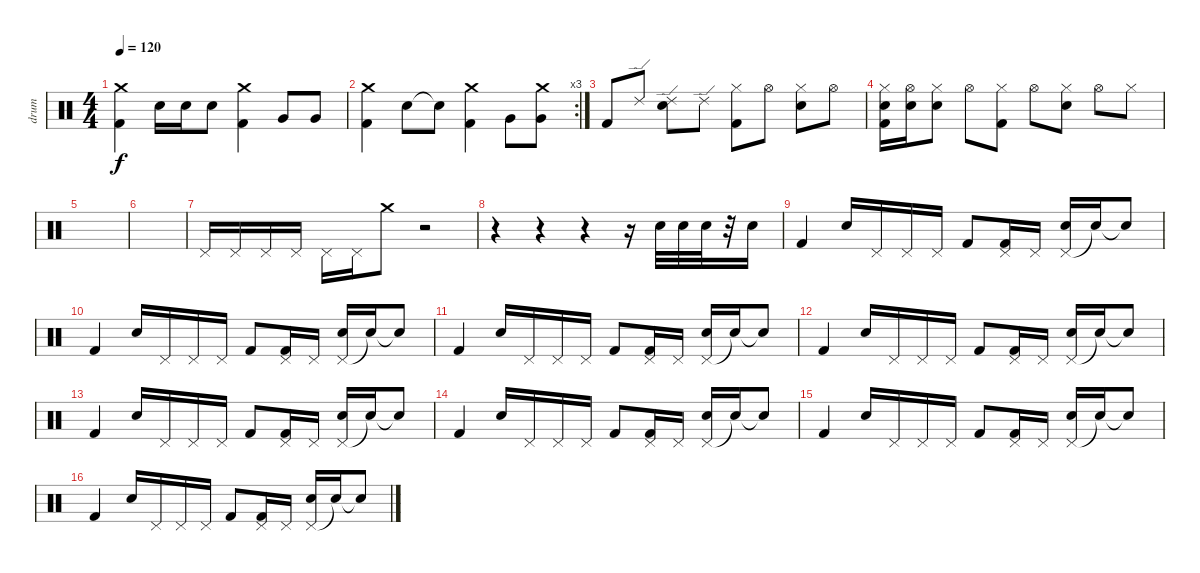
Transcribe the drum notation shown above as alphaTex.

\track ("drum" "drum") {instrument percussion}
\staff {score}
\articulation defaults
\ts (4 4)
\tempo 120
\clef neutral
\ks c
("Crash medium (hit)" "Kick (hit) 2").4{dy f} "Electric Snare (hit)".16 "Electric Snare (hit)".16 "Electric Snare (hit)".8 ("Crash medium (hit)" "Kick (hit) 2").4 "Very Low Tom (hit)".8 "Very Low Tom (hit)".8 |
\rc 3
("Crash medium (hit)" "Kick (hit) 2").4 "Electric Snare (hit)".8 "Electric Snare (hit)"{t}.8 ("Crash medium (hit)" "Kick (hit) 2").4 "Very Low Tom (hit)".8 ("Crash medium (hit)" "Very Low Tom (hit)").8 |
"Kick (hit) 2".8 "Ride (edge) 2".8 ("Ride (edge) 2" "Electric Snare (hit)").8 "Ride (edge) 2".8 ("Hi-Hat (closed)" "Kick (hit) 2").8 "Hi-Hat (open)".8 ("Hi-Hat (closed)" "Electric Snare (hit)").8 "Hi-Hat (open)".8 |
("Hi-Hat (closed)" "Electric Snare (hit)" "Kick (hit) 2").16 ("Hi-Hat (open)" "Electric Snare (hit)").16 ("Hi-Hat (closed)" "Electric Snare (hit)").8 "Hi-Hat (open)".8 ("Hi-Hat (closed)" "Kick (hit) 2").8 "Hi-Hat (open)".8 ("Hi-Hat (closed)" "Electric Snare (hit)").8 "Hi-Hat (open)".8 "Hi-Hat (closed)".8 |
|
|
"Pedal Hi-Hat (hit)".16 "Pedal Hi-Hat (hit)".16 "Pedal Hi-Hat (hit)".16 "Pedal Hi-Hat (hit)".16 "Pedal Hi-Hat (hit)".16 "Pedal Hi-Hat (hit)".16 "Crash medium (hit)".8 r.2 |
r.4 r.4 r.4 r.16 "Electric Snare (hit)".32 "Electric Snare (hit)".32 "Electric Snare (hit)".32 r.32 "Electric Snare (hit)".16 |
"Kick (hit) 2".4 "Electric Snare (hit)".16 "Pedal Hi-Hat (hit)".16 "Pedal Hi-Hat (hit)".16 "Pedal Hi-Hat (hit)".16 "Kick (hit) 2".8 ("Pedal Hi-Hat (hit)" "Kick (hit) 2").16 "Pedal Hi-Hat (hit)".16 ("Pedal Hi-Hat (hit)" "Electric Snare (hit)").16 "Snare (hit)"{t}.16 "Snare (hit)"{t}.8 |
"Kick (hit) 2".4 "Electric Snare (hit)".16 "Pedal Hi-Hat (hit)".16 "Pedal Hi-Hat (hit)".16 "Pedal Hi-Hat (hit)".16 "Kick (hit) 2".8 ("Pedal Hi-Hat (hit)" "Kick (hit) 2").16 "Pedal Hi-Hat (hit)".16 ("Pedal Hi-Hat (hit)" "Electric Snare (hit)").16 "Snare (hit)"{t}.16 "Snare (hit)"{t}.8 |
"Kick (hit) 2".4 "Electric Snare (hit)".16 "Pedal Hi-Hat (hit)".16 "Pedal Hi-Hat (hit)".16 "Pedal Hi-Hat (hit)".16 "Kick (hit) 2".8 ("Pedal Hi-Hat (hit)" "Kick (hit) 2").16 "Pedal Hi-Hat (hit)".16 ("Pedal Hi-Hat (hit)" "Electric Snare (hit)").16 "Snare (hit)"{t}.16 "Snare (hit)"{t}.8 |
"Kick (hit) 2".4 "Electric Snare (hit)".16 "Pedal Hi-Hat (hit)".16 "Pedal Hi-Hat (hit)".16 "Pedal Hi-Hat (hit)".16 "Kick (hit) 2".8 ("Pedal Hi-Hat (hit)" "Kick (hit) 2").16 "Pedal Hi-Hat (hit)".16 ("Pedal Hi-Hat (hit)" "Electric Snare (hit)").16 "Snare (hit)"{t}.16 "Snare (hit)"{t}.8 |
"Kick (hit) 2".4 "Electric Snare (hit)".16 "Pedal Hi-Hat (hit)".16 "Pedal Hi-Hat (hit)".16 "Pedal Hi-Hat (hit)".16 "Kick (hit) 2".8 ("Pedal Hi-Hat (hit)" "Kick (hit) 2").16 "Pedal Hi-Hat (hit)".16 ("Pedal Hi-Hat (hit)" "Electric Snare (hit)").16 "Snare (hit)"{t}.16 "Snare (hit)"{t}.8 |
"Kick (hit) 2".4 "Electric Snare (hit)".16 "Pedal Hi-Hat (hit)".16 "Pedal Hi-Hat (hit)".16 "Pedal Hi-Hat (hit)".16 "Kick (hit) 2".8 ("Pedal Hi-Hat (hit)" "Kick (hit) 2").16 "Pedal Hi-Hat (hit)".16 ("Pedal Hi-Hat (hit)" "Electric Snare (hit)").16 "Snare (hit)"{t}.16 "Snare (hit)"{t}.8 |
"Kick (hit) 2".4 "Electric Snare (hit)".16 "Pedal Hi-Hat (hit)".16 "Pedal Hi-Hat (hit)".16 "Pedal Hi-Hat (hit)".16 "Kick (hit) 2".8 ("Pedal Hi-Hat (hit)" "Kick (hit) 2").16 "Pedal Hi-Hat (hit)".16 ("Pedal Hi-Hat (hit)" "Electric Snare (hit)").16 "Snare (hit)"{t}.16 "Snare (hit)"{t}.8 |
"Kick (hit) 2".4 "Electric Snare (hit)".16 "Pedal Hi-Hat (hit)".16 "Pedal Hi-Hat (hit)".16 "Pedal Hi-Hat (hit)".16 "Kick (hit) 2".8 ("Pedal Hi-Hat (hit)" "Kick (hit) 2").16 "Pedal Hi-Hat (hit)".16 ("Pedal Hi-Hat (hit)" "Electric Snare (hit)").16 "Snare (hit)"{t}.16 "Snare (hit)"{t}.8
